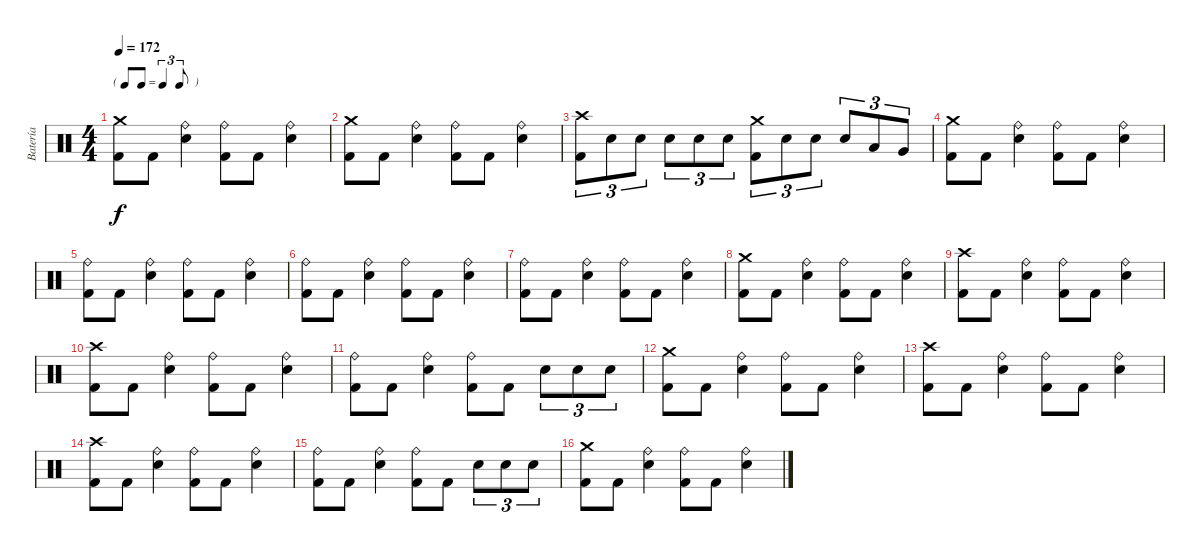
\track ("Batería" "Batería") {instrument percussion}
\staff {score}
\articulation defaults
\ts (4 4)
\tf triplet8th
\tempo 172
\clef neutral
\ks c
("Kick (hit) 2" "Crash medium (hit)").8{dy f} "Kick (hit) 2".8 ("Electric Snare (hit)" "Ride (bell)").4 ("Kick (hit) 2" "Ride (bell)").8 "Kick (hit) 2".8 ("Electric Snare (hit)" "Ride (bell)").4 |
("Kick (hit) 2" "Crash medium (hit)").8 "Kick (hit) 2".8 ("Electric Snare (hit)" "Ride (bell)").4 ("Kick (hit) 2" "Ride (bell)").8 "Kick (hit) 2".8 ("Electric Snare (hit)" "Ride (bell)").4 |
("Kick (hit) 2" "Crash high (hit)").8{tu (3 2)} "Electric Snare (hit)".8{tu (3 2)} "Electric Snare (hit)".8{tu (3 2)} "Electric Snare (hit)".8{tu (3 2)} "Electric Snare (hit)".8{tu (3 2)} "Electric Snare (hit)".8{tu (3 2)} ("Kick (hit) 2" "Crash medium (hit)").8{tu (3 2)} "Electric Snare (hit)".8{tu (3 2)} "Electric Snare (hit)".8{tu (3 2)} "Electric Snare (hit)".8{tu (3 2)} "Low Floor Tom (hit)".8{tu (3 2)} "Very Low Tom (hit)".8{tu (3 2)} |
("Kick (hit) 2" "Crash medium (hit)").8 "Kick (hit) 2".8 ("Electric Snare (hit)" "Ride (bell)").4 ("Kick (hit) 2" "Ride (bell)").8 "Kick (hit) 2".8 ("Electric Snare (hit)" "Ride (bell)").4 |
("Kick (hit) 2" "Ride (bell)").8 "Kick (hit) 2".8 ("Electric Snare (hit)" "Ride (bell)").4 ("Kick (hit) 2" "Ride (bell)").8 "Kick (hit) 2".8 ("Electric Snare (hit)" "Ride (bell)").4 |
("Kick (hit) 2" "Ride (bell)").8 "Kick (hit) 2".8 ("Electric Snare (hit)" "Ride (bell)").4 ("Kick (hit) 2" "Ride (bell)").8 "Kick (hit) 2".8 ("Electric Snare (hit)" "Ride (bell)").4 |
("Kick (hit) 2" "Ride (bell)").8 "Kick (hit) 2".8 ("Electric Snare (hit)" "Ride (bell)").4 ("Kick (hit) 2" "Ride (bell)").8 "Kick (hit) 2".8 ("Electric Snare (hit)" "Ride (bell)").4 |
("Kick (hit) 2" "Crash medium (hit)").8 "Kick (hit) 2".8 ("Electric Snare (hit)" "Ride (bell)").4 ("Kick (hit) 2" "Ride (bell)").8 "Kick (hit) 2".8 ("Electric Snare (hit)" "Ride (bell)").4 |
("Kick (hit) 2" "Crash high (hit)").8 "Kick (hit) 2".8 ("Electric Snare (hit)" "Ride (bell)").4 ("Kick (hit) 2" "Ride (bell)").8 "Kick (hit) 2".8 ("Electric Snare (hit)" "Ride (bell)").4 |
("Kick (hit) 2" "Crash high (hit)").8 "Kick (hit) 2".8 ("Electric Snare (hit)" "Ride (bell)").4 ("Kick (hit) 2" "Ride (bell)").8 "Kick (hit) 2".8 ("Electric Snare (hit)" "Ride (bell)").4 |
("Kick (hit) 2" "Ride (bell)").8 "Kick (hit) 2".8 ("Electric Snare (hit)" "Ride (bell)").4 ("Kick (hit) 2" "Ride (bell)").8 "Kick (hit) 2".8 "Electric Snare (hit)".8{tu (3 2)} "Electric Snare (hit)".8{tu (3 2)} "Electric Snare (hit)".8{tu (3 2)} |
("Kick (hit) 2" "Crash medium (hit)").8 "Kick (hit) 2".8 ("Electric Snare (hit)" "Ride (bell)").4 ("Kick (hit) 2" "Ride (bell)").8 "Kick (hit) 2".8 ("Electric Snare (hit)" "Ride (bell)").4 |
("Kick (hit) 2" "Crash high (hit)").8 "Kick (hit) 2".8 ("Electric Snare (hit)" "Ride (bell)").4 ("Kick (hit) 2" "Ride (bell)").8 "Kick (hit) 2".8 ("Electric Snare (hit)" "Ride (bell)").4 |
("Kick (hit) 2" "Crash high (hit)").8 "Kick (hit) 2".8 ("Electric Snare (hit)" "Ride (bell)").4 ("Kick (hit) 2" "Ride (bell)").8 "Kick (hit) 2".8 ("Electric Snare (hit)" "Ride (bell)").4 |
("Kick (hit) 2" "Ride (bell)").8 "Kick (hit) 2".8 ("Electric Snare (hit)" "Ride (bell)").4 ("Kick (hit) 2" "Ride (bell)").8 "Kick (hit) 2".8 "Electric Snare (hit)".8{tu (3 2)} "Electric Snare (hit)".8{tu (3 2)} "Electric Snare (hit)".8{tu (3 2)} |
("Kick (hit) 2" "Crash medium (hit)").8 "Kick (hit) 2".8 ("Electric Snare (hit)" "Ride (bell)").4 ("Kick (hit) 2" "Ride (bell)").8 "Kick (hit) 2".8 ("Electric Snare (hit)" "Ride (bell)").4
